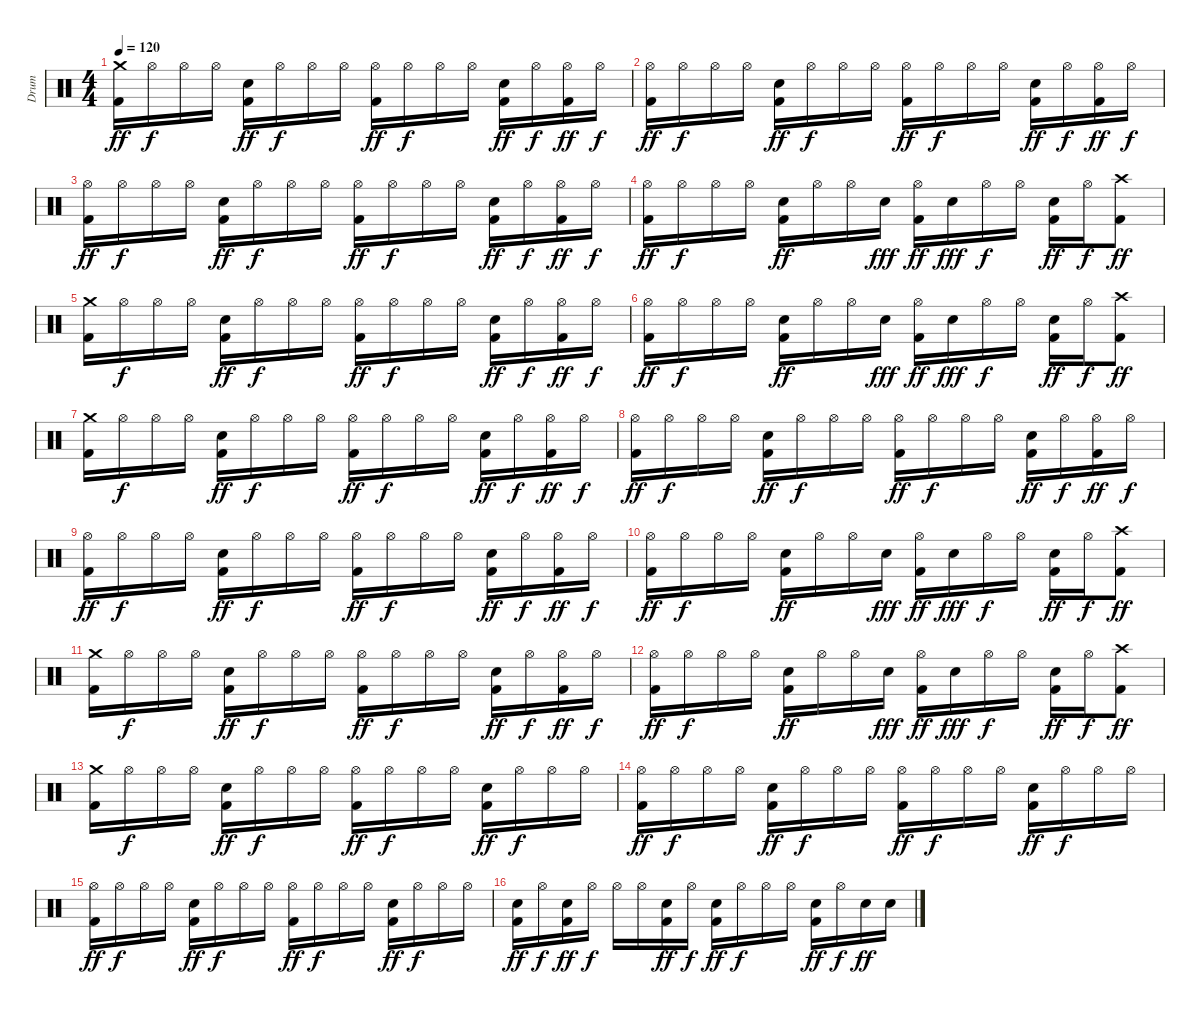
\track ("Drum" "Drum") {instrument percussion}
\staff {score}
\articulation defaults
\ts (4 4)
\tempo 120
\clef neutral
\ks c
("Crash medium (hit)" "Kick (hit) 2").16{dy ff} "Hi-Hat (open)".16{dy f} "Hi-Hat (open)".16 "Hi-Hat (open)".16 ("Kick (hit) 2" "Electric Snare (hit)").16{dy ff} "Hi-Hat (open)".16{dy f} "Hi-Hat (open)".16 "Hi-Hat (open)".16 ("Hi-Hat (open)" "Kick (hit) 2").16{dy ff} "Hi-Hat (open)".16{dy f} "Hi-Hat (open)".16 "Hi-Hat (open)".16 ("Kick (hit) 2" "Electric Snare (hit)").16{dy ff} "Hi-Hat (open)".16{dy f} ("Hi-Hat (open)" "Kick (hit) 2").16{dy ff} "Hi-Hat (open)".16{dy f} |
("Hi-Hat (open)" "Kick (hit) 2").16{dy ff} "Hi-Hat (open)".16{dy f} "Hi-Hat (open)".16 "Hi-Hat (open)".16 ("Kick (hit) 2" "Electric Snare (hit)").16{dy ff} "Hi-Hat (open)".16{dy f} "Hi-Hat (open)".16 "Hi-Hat (open)".16 ("Hi-Hat (open)" "Kick (hit) 2").16{dy ff} "Hi-Hat (open)".16{dy f} "Hi-Hat (open)".16 "Hi-Hat (open)".16 ("Kick (hit) 2" "Electric Snare (hit)").16{dy ff} "Hi-Hat (open)".16{dy f} ("Hi-Hat (open)" "Kick (hit) 2").16{dy ff} "Hi-Hat (open)".16{dy f} |
("Hi-Hat (open)" "Kick (hit) 2").16{dy ff} "Hi-Hat (open)".16{dy f} "Hi-Hat (open)".16 "Hi-Hat (open)".16 ("Kick (hit) 2" "Electric Snare (hit)").16{dy ff} "Hi-Hat (open)".16{dy f} "Hi-Hat (open)".16 "Hi-Hat (open)".16 ("Hi-Hat (open)" "Kick (hit) 2").16{dy ff} "Hi-Hat (open)".16{dy f} "Hi-Hat (open)".16 "Hi-Hat (open)".16 ("Kick (hit) 2" "Electric Snare (hit)").16{dy ff} "Hi-Hat (open)".16{dy f} ("Hi-Hat (open)" "Kick (hit) 2").16{dy ff} "Hi-Hat (open)".16{dy f} |
("Hi-Hat (open)" "Kick (hit) 2").16{dy ff} "Hi-Hat (open)".16{dy f} "Hi-Hat (open)".16 "Hi-Hat (open)".16 ("Kick (hit) 2" "Electric Snare (hit)").16{dy ff} "Hi-Hat (open)".16 "Hi-Hat (open)".16 "Electric Snare (hit)".16{dy fff} ("Hi-Hat (open)" "Kick (hit) 2").16{dy ff} "Electric Snare (hit)".16{dy fff} "Hi-Hat (open)".16{dy f} "Hi-Hat (open)".16 ("Kick (hit) 2" "Electric Snare (hit)").16{dy ff} "Hi-Hat (open)".16{dy f} ("Crash high (hit)" "Kick (hit) 2").8{dy ff} |
("Crash medium (hit)" "Kick (hit) 2").16 "Hi-Hat (open)".16{dy f} "Hi-Hat (open)".16 "Hi-Hat (open)".16 ("Kick (hit) 2" "Electric Snare (hit)").16{dy ff} "Hi-Hat (open)".16{dy f} "Hi-Hat (open)".16 "Hi-Hat (open)".16 ("Hi-Hat (open)" "Kick (hit) 2").16{dy ff} "Hi-Hat (open)".16{dy f} "Hi-Hat (open)".16 "Hi-Hat (open)".16 ("Kick (hit) 2" "Electric Snare (hit)").16{dy ff} "Hi-Hat (open)".16{dy f} ("Hi-Hat (open)" "Kick (hit) 2").16{dy ff} "Hi-Hat (open)".16{dy f} |
("Hi-Hat (open)" "Kick (hit) 2").16{dy ff} "Hi-Hat (open)".16{dy f} "Hi-Hat (open)".16 "Hi-Hat (open)".16 ("Kick (hit) 2" "Electric Snare (hit)").16{dy ff} "Hi-Hat (open)".16 "Hi-Hat (open)".16 "Electric Snare (hit)".16{dy fff} ("Hi-Hat (open)" "Kick (hit) 2").16{dy ff} "Electric Snare (hit)".16{dy fff} "Hi-Hat (open)".16{dy f} "Hi-Hat (open)".16 ("Kick (hit) 2" "Electric Snare (hit)").16{dy ff} "Hi-Hat (open)".16{dy f} ("Crash high (hit)" "Kick (hit) 2").8{dy ff} |
("Crash medium (hit)" "Kick (hit) 2").16 "Hi-Hat (open)".16{dy f} "Hi-Hat (open)".16 "Hi-Hat (open)".16 ("Kick (hit) 2" "Electric Snare (hit)").16{dy ff} "Hi-Hat (open)".16{dy f} "Hi-Hat (open)".16 "Hi-Hat (open)".16 ("Hi-Hat (open)" "Kick (hit) 2").16{dy ff} "Hi-Hat (open)".16{dy f} "Hi-Hat (open)".16 "Hi-Hat (open)".16 ("Kick (hit) 2" "Electric Snare (hit)").16{dy ff} "Hi-Hat (open)".16{dy f} ("Hi-Hat (open)" "Kick (hit) 2").16{dy ff} "Hi-Hat (open)".16{dy f} |
("Hi-Hat (open)" "Kick (hit) 2").16{dy ff} "Hi-Hat (open)".16{dy f} "Hi-Hat (open)".16 "Hi-Hat (open)".16 ("Kick (hit) 2" "Electric Snare (hit)").16{dy ff} "Hi-Hat (open)".16{dy f} "Hi-Hat (open)".16 "Hi-Hat (open)".16 ("Hi-Hat (open)" "Kick (hit) 2").16{dy ff} "Hi-Hat (open)".16{dy f} "Hi-Hat (open)".16 "Hi-Hat (open)".16 ("Kick (hit) 2" "Electric Snare (hit)").16{dy ff} "Hi-Hat (open)".16{dy f} ("Hi-Hat (open)" "Kick (hit) 2").16{dy ff} "Hi-Hat (open)".16{dy f} |
("Hi-Hat (open)" "Kick (hit) 2").16{dy ff} "Hi-Hat (open)".16{dy f} "Hi-Hat (open)".16 "Hi-Hat (open)".16 ("Kick (hit) 2" "Electric Snare (hit)").16{dy ff} "Hi-Hat (open)".16{dy f} "Hi-Hat (open)".16 "Hi-Hat (open)".16 ("Hi-Hat (open)" "Kick (hit) 2").16{dy ff} "Hi-Hat (open)".16{dy f} "Hi-Hat (open)".16 "Hi-Hat (open)".16 ("Kick (hit) 2" "Electric Snare (hit)").16{dy ff} "Hi-Hat (open)".16{dy f} ("Hi-Hat (open)" "Kick (hit) 2").16{dy ff} "Hi-Hat (open)".16{dy f} |
("Hi-Hat (open)" "Kick (hit) 2").16{dy ff} "Hi-Hat (open)".16{dy f} "Hi-Hat (open)".16 "Hi-Hat (open)".16 ("Kick (hit) 2" "Electric Snare (hit)").16{dy ff} "Hi-Hat (open)".16 "Hi-Hat (open)".16 "Electric Snare (hit)".16{dy fff} ("Hi-Hat (open)" "Kick (hit) 2").16{dy ff} "Electric Snare (hit)".16{dy fff} "Hi-Hat (open)".16{dy f} "Hi-Hat (open)".16 ("Kick (hit) 2" "Electric Snare (hit)").16{dy ff} "Hi-Hat (open)".16{dy f} ("Crash high (hit)" "Kick (hit) 2").8{dy ff} |
("Crash medium (hit)" "Kick (hit) 2").16 "Hi-Hat (open)".16{dy f} "Hi-Hat (open)".16 "Hi-Hat (open)".16 ("Kick (hit) 2" "Electric Snare (hit)").16{dy ff} "Hi-Hat (open)".16{dy f} "Hi-Hat (open)".16 "Hi-Hat (open)".16 ("Hi-Hat (open)" "Kick (hit) 2").16{dy ff} "Hi-Hat (open)".16{dy f} "Hi-Hat (open)".16 "Hi-Hat (open)".16 ("Kick (hit) 2" "Electric Snare (hit)").16{dy ff} "Hi-Hat (open)".16{dy f} ("Hi-Hat (open)" "Kick (hit) 2").16{dy ff} "Hi-Hat (open)".16{dy f} |
("Hi-Hat (open)" "Kick (hit) 2").16{dy ff} "Hi-Hat (open)".16{dy f} "Hi-Hat (open)".16 "Hi-Hat (open)".16 ("Kick (hit) 2" "Electric Snare (hit)").16{dy ff} "Hi-Hat (open)".16 "Hi-Hat (open)".16 "Electric Snare (hit)".16{dy fff} ("Hi-Hat (open)" "Kick (hit) 2").16{dy ff} "Electric Snare (hit)".16{dy fff} "Hi-Hat (open)".16{dy f} "Hi-Hat (open)".16 ("Kick (hit) 2" "Electric Snare (hit)").16{dy ff} "Hi-Hat (open)".16{dy f} ("Crash high (hit)" "Kick (hit) 2").8{dy ff} |
("Crash medium (hit)" "Kick (hit) 2").16 "Hi-Hat (open)".16{dy f} "Hi-Hat (open)".16 "Hi-Hat (open)".16 ("Kick (hit) 2" "Electric Snare (hit)").16{dy ff} "Hi-Hat (open)".16{dy f} "Hi-Hat (open)".16 "Hi-Hat (open)".16 ("Hi-Hat (open)" "Kick (hit) 2").16{dy ff} "Hi-Hat (open)".16{dy f} "Hi-Hat (open)".16 "Hi-Hat (open)".16 ("Kick (hit) 2" "Electric Snare (hit)").16{dy ff} "Hi-Hat (open)".16{dy f} "Hi-Hat (open)".16 "Hi-Hat (open)".16 |
("Hi-Hat (open)" "Kick (hit) 2").16{dy ff} "Hi-Hat (open)".16{dy f} "Hi-Hat (open)".16 "Hi-Hat (open)".16 ("Kick (hit) 2" "Electric Snare (hit)").16{dy ff} "Hi-Hat (open)".16{dy f} "Hi-Hat (open)".16 "Hi-Hat (open)".16 ("Hi-Hat (open)" "Kick (hit) 2").16{dy ff} "Hi-Hat (open)".16{dy f} "Hi-Hat (open)".16 "Hi-Hat (open)".16 ("Kick (hit) 2" "Electric Snare (hit)").16{dy ff} "Hi-Hat (open)".16{dy f} "Hi-Hat (open)".16 "Hi-Hat (open)".16 |
("Hi-Hat (open)" "Kick (hit) 2").16{dy ff} "Hi-Hat (open)".16{dy f} "Hi-Hat (open)".16 "Hi-Hat (open)".16 ("Kick (hit) 2" "Electric Snare (hit)").16{dy ff} "Hi-Hat (open)".16{dy f} "Hi-Hat (open)".16 "Hi-Hat (open)".16 ("Hi-Hat (open)" "Kick (hit) 2").16{dy ff} "Hi-Hat (open)".16{dy f} "Hi-Hat (open)".16 "Hi-Hat (open)".16 ("Kick (hit) 2" "Electric Snare (hit)").16{dy ff} "Hi-Hat (open)".16{dy f} "Hi-Hat (open)".16 "Hi-Hat (open)".16 |
("Kick (hit) 2" "Electric Snare (hit)").16{dy ff} "Hi-Hat (open)".16{dy f} ("Kick (hit) 2" "Electric Snare (hit)").16{dy ff} "Hi-Hat (open)".16{dy f} "Hi-Hat (open)".16 "Hi-Hat (open)".16 ("Kick (hit) 2" "Electric Snare (hit)").16{dy ff} "Hi-Hat (open)".16{dy f} ("Kick (hit) 2" "Electric Snare (hit)").16{dy ff} "Hi-Hat (open)".16{dy f} "Hi-Hat (open)".16 "Hi-Hat (open)".16 ("Kick (hit) 2" "Electric Snare (hit)").16{dy ff} "Hi-Hat (open)".16{dy f} "Electric Snare (hit)".16{dy ff} "Electric Snare (hit)".16
